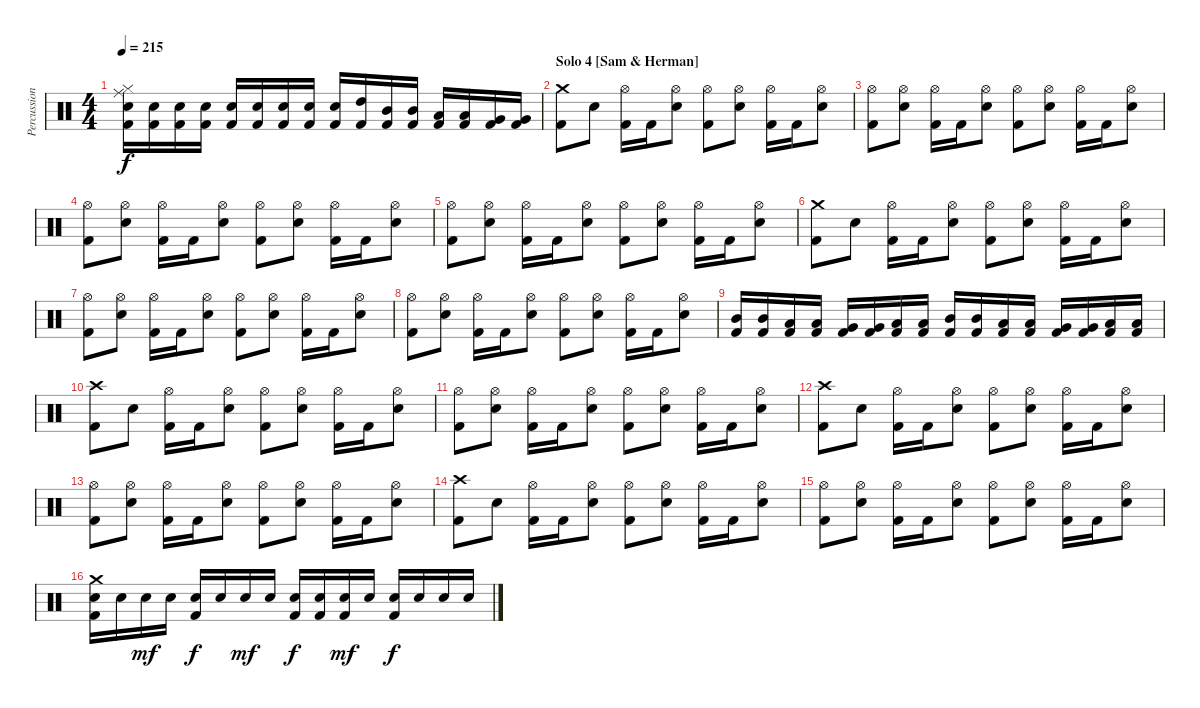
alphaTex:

\track ("Percussion" "Percussion") {instrument percussion}
\staff {score}
\articulation defaults
\ts (4 4)
\tempo 215
\clef neutral
\ks c
("Hi-Hat (closed)" "Ride (middle)" "Snare (hit) 2" "Kick (hit) 2").16{dy f} ("Snare (hit) 2" "Kick (hit) 2").16 ("Snare (hit) 2" "Kick (hit) 2").16 ("Snare (hit) 2" "Kick (hit) 2").16 ("Snare (hit) 2" "Kick (hit) 2").16 ("Snare (hit) 2" "Kick (hit) 2").16 ("Snare (hit) 2" "Kick (hit) 2").16 ("Snare (hit) 2" "Kick (hit) 2").16 ("Snare (hit) 2" "Kick (hit) 2").16 ("High Tom (hit)" "Kick (hit) 2").16 ("Mid Tom (hit)" "Kick (hit) 2").16 ("Mid Tom (hit)" "Kick (hit) 2").16 ("Low Tom (hit)" "Kick (hit) 2").16 ("Low Tom (hit)" "Kick (hit) 2").16 ("Very Low Tom (hit)" "Kick (hit) 2").16 ("Very Low Tom (hit)" "Kick (hit) 2").16 |
\section ("" "Solo 4 [Sam & Herman]")
("Crash medium (hit)" "Kick (hit) 2").8 "Snare (hit) 2".8 ("Hi-Hat (open)" "Kick (hit) 2").16 "Kick (hit) 2".16 ("Hi-Hat (open)" "Snare (hit) 2").8 ("Hi-Hat (open)" "Kick (hit) 2").8 ("Hi-Hat (open)" "Snare (hit) 2").8 ("Hi-Hat (open)" "Kick (hit) 2").16 "Kick (hit) 2".16 ("Hi-Hat (open)" "Snare (hit) 2").8 |
("Hi-Hat (open)" "Kick (hit) 2").8 ("Hi-Hat (open)" "Snare (hit) 2").8 ("Hi-Hat (open)" "Kick (hit) 2").16 "Kick (hit) 2".16 ("Hi-Hat (open)" "Snare (hit) 2").8 ("Hi-Hat (open)" "Kick (hit) 2").8 ("Hi-Hat (open)" "Snare (hit) 2").8 ("Hi-Hat (open)" "Kick (hit) 2").16 "Kick (hit) 2".16 ("Hi-Hat (open)" "Snare (hit) 2").8 |
("Hi-Hat (open)" "Kick (hit) 2").8 ("Hi-Hat (open)" "Snare (hit) 2").8 ("Hi-Hat (open)" "Kick (hit) 2").16 "Kick (hit) 2".16 ("Hi-Hat (open)" "Snare (hit) 2").8 ("Hi-Hat (open)" "Kick (hit) 2").8 ("Hi-Hat (open)" "Snare (hit) 2").8 ("Hi-Hat (open)" "Kick (hit) 2").16 "Kick (hit) 2".16 ("Hi-Hat (open)" "Snare (hit) 2").8 |
("Hi-Hat (open)" "Kick (hit) 2").8 ("Hi-Hat (open)" "Snare (hit) 2").8 ("Hi-Hat (open)" "Kick (hit) 2").16 "Kick (hit) 2".16 ("Hi-Hat (open)" "Snare (hit) 2").8 ("Hi-Hat (open)" "Kick (hit) 2").8 ("Hi-Hat (open)" "Snare (hit) 2").8 ("Hi-Hat (open)" "Kick (hit) 2").16 "Kick (hit) 2".16 ("Hi-Hat (open)" "Snare (hit) 2").8 |
("Crash medium (hit)" "Kick (hit) 2").8 "Snare (hit) 2".8 ("Hi-Hat (open)" "Kick (hit) 2").16 "Kick (hit) 2".16 ("Hi-Hat (open)" "Snare (hit) 2").8 ("Hi-Hat (open)" "Kick (hit) 2").8 ("Hi-Hat (open)" "Snare (hit) 2").8 ("Hi-Hat (open)" "Kick (hit) 2").16 "Kick (hit) 2".16 ("Hi-Hat (open)" "Snare (hit) 2").8 |
("Hi-Hat (open)" "Kick (hit) 2").8 ("Hi-Hat (open)" "Snare (hit) 2").8 ("Hi-Hat (open)" "Kick (hit) 2").16 "Kick (hit) 2".16 ("Hi-Hat (open)" "Snare (hit) 2").8 ("Hi-Hat (open)" "Kick (hit) 2").8 ("Hi-Hat (open)" "Snare (hit) 2").8 ("Hi-Hat (open)" "Kick (hit) 2").16 "Kick (hit) 2".16 ("Hi-Hat (open)" "Snare (hit) 2").8 |
("Hi-Hat (open)" "Kick (hit) 2").8 ("Hi-Hat (open)" "Snare (hit) 2").8 ("Hi-Hat (open)" "Kick (hit) 2").16 "Kick (hit) 2".16 ("Hi-Hat (open)" "Snare (hit) 2").8 ("Hi-Hat (open)" "Kick (hit) 2").8 ("Hi-Hat (open)" "Snare (hit) 2").8 ("Hi-Hat (open)" "Kick (hit) 2").16 "Kick (hit) 2".16 ("Hi-Hat (open)" "Snare (hit) 2").8 |
("Mid Tom (hit)" "Kick (hit) 2").16 ("Mid Tom (hit)" "Kick (hit) 2").16 ("Low Tom (hit)" "Kick (hit) 2").16 ("Low Tom (hit)" "Kick (hit) 2").16 ("Very Low Tom (hit)" "Kick (hit) 2").16 ("Very Low Tom (hit)" "Kick (hit) 2").16 ("Low Tom (hit)" "Kick (hit) 2").16 ("Low Tom (hit)" "Kick (hit) 2").16 ("Mid Tom (hit)" "Kick (hit) 2").16 ("Mid Tom (hit)" "Kick (hit) 2").16 ("Low Tom (hit)" "Kick (hit) 2").16 ("Low Tom (hit)" "Kick (hit) 2").16 ("Very Low Tom (hit)" "Kick (hit) 2").16 ("Very Low Tom (hit)" "Kick (hit) 2").16 ("Low Floor Tom (hit)" "Kick (hit) 2").16 ("Low Floor Tom (hit)" "Kick (hit) 2").16 |
("Crash high (hit)" "Kick (hit) 2").8 "Snare (hit) 2".8 ("Hi-Hat (open)" "Kick (hit) 2").16 "Kick (hit) 2".16 ("Hi-Hat (open)" "Snare (hit) 2").8 ("Hi-Hat (open)" "Kick (hit) 2").8 ("Hi-Hat (open)" "Snare (hit) 2").8 ("Hi-Hat (open)" "Kick (hit) 2").16 "Kick (hit) 2".16 ("Hi-Hat (open)" "Snare (hit) 2").8 |
("Hi-Hat (open)" "Kick (hit) 2").8 ("Hi-Hat (open)" "Snare (hit) 2").8 ("Hi-Hat (open)" "Kick (hit) 2").16 "Kick (hit) 2".16 ("Hi-Hat (open)" "Snare (hit) 2").8 ("Hi-Hat (open)" "Kick (hit) 2").8 ("Hi-Hat (open)" "Snare (hit) 2").8 ("Hi-Hat (open)" "Kick (hit) 2").16 "Kick (hit) 2".16 ("Hi-Hat (open)" "Snare (hit) 2").8 |
("Crash high (hit)" "Kick (hit) 2").8 "Snare (hit) 2".8 ("Hi-Hat (open)" "Kick (hit) 2").16 "Kick (hit) 2".16 ("Hi-Hat (open)" "Snare (hit) 2").8 ("Hi-Hat (open)" "Kick (hit) 2").8 ("Hi-Hat (open)" "Snare (hit) 2").8 ("Hi-Hat (open)" "Kick (hit) 2").16 "Kick (hit) 2".16 ("Hi-Hat (open)" "Snare (hit) 2").8 |
("Hi-Hat (open)" "Kick (hit) 2").8 ("Hi-Hat (open)" "Snare (hit) 2").8 ("Hi-Hat (open)" "Kick (hit) 2").16 "Kick (hit) 2".16 ("Hi-Hat (open)" "Snare (hit) 2").8 ("Hi-Hat (open)" "Kick (hit) 2").8 ("Hi-Hat (open)" "Snare (hit) 2").8 ("Hi-Hat (open)" "Kick (hit) 2").16 "Kick (hit) 2".16 ("Hi-Hat (open)" "Snare (hit) 2").8 |
("Crash high (hit)" "Kick (hit) 2").8 "Snare (hit) 2".8 ("Hi-Hat (open)" "Kick (hit) 2").16 "Kick (hit) 2".16 ("Hi-Hat (open)" "Snare (hit) 2").8 ("Hi-Hat (open)" "Kick (hit) 2").8 ("Hi-Hat (open)" "Snare (hit) 2").8 ("Hi-Hat (open)" "Kick (hit) 2").16 "Kick (hit) 2".16 ("Hi-Hat (open)" "Snare (hit) 2").8 |
("Hi-Hat (open)" "Kick (hit) 2").8 ("Hi-Hat (open)" "Snare (hit) 2").8 ("Hi-Hat (open)" "Kick (hit) 2").16 "Kick (hit) 2".16 ("Hi-Hat (open)" "Snare (hit) 2").8 ("Hi-Hat (open)" "Kick (hit) 2").8 ("Hi-Hat (open)" "Snare (hit) 2").8 ("Hi-Hat (open)" "Kick (hit) 2").16 "Kick (hit) 2".16 ("Hi-Hat (open)" "Snare (hit) 2").8 |
("Crash medium (hit)" "Snare (hit) 2" "Kick (hit) 2").16 "Snare (hit) 2".16 "Snare (hit) 2".16{dy mf} "Snare (hit) 2".16 ("Snare (hit) 2" "Kick (hit) 2").16{dy f} "Snare (hit) 2".16 "Snare (hit) 2".16{dy mf} "Snare (hit) 2".16 ("Snare (hit) 2" "Kick (hit) 2").16{dy f} ("Snare (hit) 2" "Kick (hit) 2").16 ("Snare (hit) 2" "Kick (hit) 2").16{dy mf} "Snare (hit) 2".16 ("Snare (hit) 2" "Kick (hit) 2").16{dy f} "Snare (hit) 2".16 "Snare (hit) 2".16 "Snare (hit) 2".16
